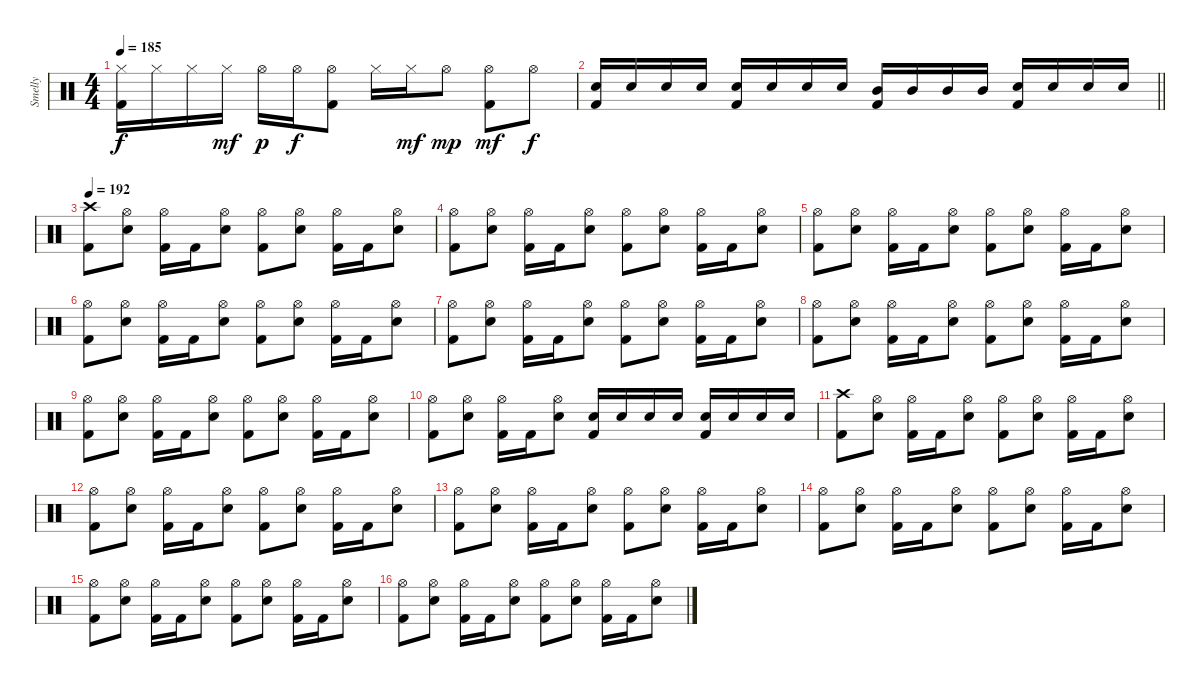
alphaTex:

\track ("Smelly" "Smelly") {instrument percussion}
\staff {score}
\articulation defaults
\ts (4 4)
\tempo 185
\clef neutral
\ks c
("Hi-Hat (closed)" "Kick (hit) 2").16{dy f} "Hi-Hat (closed)".16 "Hi-Hat (closed)".16 "Hi-Hat (closed)".16{dy mf} "Hi-Hat (open)".16{dy p} "Hi-Hat (open)".16{dy f} ("Hi-Hat (open)" "Kick (hit) 2").8 "Hi-Hat (closed)".16 "Hi-Hat (closed)".16{dy mf} "Hi-Hat (open)".8{dy mp} ("Hi-Hat (open)" "Kick (hit) 2").8{dy mf} "Hi-Hat (open)".8{dy f} |
\barLineRight lightlight
("Electric Snare (hit)" "Kick (hit) 2").16 "Electric Snare (hit)".16 "Electric Snare (hit)".16 "Electric Snare (hit)".16 ("Electric Snare (hit)" "Kick (hit) 2").16 "Electric Snare (hit)".16 "Electric Snare (hit)".16 "Electric Snare (hit)".16 ("Mid Tom (hit)" "Kick (hit) 2").16 "Mid Tom (hit)".16 "Mid Tom (hit)".16 "Mid Tom (hit)".16 ("Electric Snare (hit)" "Kick (hit) 2").16 "Electric Snare (hit)".16 "Electric Snare (hit)".16 "Electric Snare (hit)".16 |
\section ("" "")
\tempo 192
("Crash high (hit)" "Kick (hit) 2").8 ("Hi-Hat (open)" "Electric Snare (hit)").8 ("Hi-Hat (open)" "Kick (hit) 2").16 "Kick (hit) 2".16 ("Hi-Hat (open)" "Electric Snare (hit)").8 ("Hi-Hat (open)" "Kick (hit) 2").8 ("Hi-Hat (open)" "Electric Snare (hit)").8 ("Hi-Hat (open)" "Kick (hit) 2").16 "Kick (hit) 2".16 ("Hi-Hat (open)" "Electric Snare (hit)").8 |
("Hi-Hat (open)" "Kick (hit) 2").8 ("Hi-Hat (open)" "Electric Snare (hit)").8 ("Hi-Hat (open)" "Kick (hit) 2").16 "Kick (hit) 2".16 ("Hi-Hat (open)" "Electric Snare (hit)").8 ("Hi-Hat (open)" "Kick (hit) 2").8 ("Hi-Hat (open)" "Electric Snare (hit)").8 ("Hi-Hat (open)" "Kick (hit) 2").16 "Kick (hit) 2".16 ("Hi-Hat (open)" "Electric Snare (hit)").8 |
("Hi-Hat (open)" "Kick (hit) 2").8 ("Hi-Hat (open)" "Electric Snare (hit)").8 ("Hi-Hat (open)" "Kick (hit) 2").16 "Kick (hit) 2".16 ("Hi-Hat (open)" "Electric Snare (hit)").8 ("Hi-Hat (open)" "Kick (hit) 2").8 ("Hi-Hat (open)" "Electric Snare (hit)").8 ("Hi-Hat (open)" "Kick (hit) 2").16 "Kick (hit) 2".16 ("Hi-Hat (open)" "Electric Snare (hit)").8 |
("Hi-Hat (open)" "Kick (hit) 2").8 ("Hi-Hat (open)" "Electric Snare (hit)").8 ("Hi-Hat (open)" "Kick (hit) 2").16 "Kick (hit) 2".16 ("Hi-Hat (open)" "Electric Snare (hit)").8 ("Hi-Hat (open)" "Kick (hit) 2").8 ("Hi-Hat (open)" "Electric Snare (hit)").8 ("Hi-Hat (open)" "Kick (hit) 2").16 "Kick (hit) 2".16 ("Hi-Hat (open)" "Electric Snare (hit)").8 |
("Hi-Hat (open)" "Kick (hit) 2").8 ("Hi-Hat (open)" "Electric Snare (hit)").8 ("Hi-Hat (open)" "Kick (hit) 2").16 "Kick (hit) 2".16 ("Hi-Hat (open)" "Electric Snare (hit)").8 ("Hi-Hat (open)" "Kick (hit) 2").8 ("Hi-Hat (open)" "Electric Snare (hit)").8 ("Hi-Hat (open)" "Kick (hit) 2").16 "Kick (hit) 2".16 ("Hi-Hat (open)" "Electric Snare (hit)").8 |
("Hi-Hat (open)" "Kick (hit) 2").8 ("Hi-Hat (open)" "Electric Snare (hit)").8 ("Hi-Hat (open)" "Kick (hit) 2").16 "Kick (hit) 2".16 ("Hi-Hat (open)" "Electric Snare (hit)").8 ("Hi-Hat (open)" "Kick (hit) 2").8 ("Hi-Hat (open)" "Electric Snare (hit)").8 ("Hi-Hat (open)" "Kick (hit) 2").16 "Kick (hit) 2".16 ("Hi-Hat (open)" "Electric Snare (hit)").8 |
("Hi-Hat (open)" "Kick (hit) 2").8 ("Hi-Hat (open)" "Electric Snare (hit)").8 ("Hi-Hat (open)" "Kick (hit) 2").16 "Kick (hit) 2".16 ("Hi-Hat (open)" "Electric Snare (hit)").8 ("Hi-Hat (open)" "Kick (hit) 2").8 ("Hi-Hat (open)" "Electric Snare (hit)").8 ("Hi-Hat (open)" "Kick (hit) 2").16 "Kick (hit) 2".16 ("Hi-Hat (open)" "Electric Snare (hit)").8 |
("Hi-Hat (open)" "Kick (hit) 2").8 ("Hi-Hat (open)" "Electric Snare (hit)").8 ("Hi-Hat (open)" "Kick (hit) 2").16 "Kick (hit) 2".16 ("Hi-Hat (open)" "Electric Snare (hit)").8 ("Electric Snare (hit)" "Kick (hit) 2").16 "Electric Snare (hit)".16 "Electric Snare (hit)".16 "Electric Snare (hit)".16 ("Electric Snare (hit)" "Kick (hit) 2").16 "Electric Snare (hit)".16 "Electric Snare (hit)".16 "Electric Snare (hit)".16 |
("Crash high (hit)" "Kick (hit) 2").8 ("Hi-Hat (open)" "Electric Snare (hit)").8 ("Hi-Hat (open)" "Kick (hit) 2").16 "Kick (hit) 2".16 ("Hi-Hat (open)" "Electric Snare (hit)").8 ("Hi-Hat (open)" "Kick (hit) 2").8 ("Hi-Hat (open)" "Electric Snare (hit)").8 ("Hi-Hat (open)" "Kick (hit) 2").16 "Kick (hit) 2".16 ("Hi-Hat (open)" "Electric Snare (hit)").8 |
("Hi-Hat (open)" "Kick (hit) 2").8 ("Hi-Hat (open)" "Electric Snare (hit)").8 ("Hi-Hat (open)" "Kick (hit) 2").16 "Kick (hit) 2".16 ("Hi-Hat (open)" "Electric Snare (hit)").8 ("Hi-Hat (open)" "Kick (hit) 2").8 ("Hi-Hat (open)" "Electric Snare (hit)").8 ("Hi-Hat (open)" "Kick (hit) 2").16 "Kick (hit) 2".16 ("Hi-Hat (open)" "Electric Snare (hit)").8 |
("Hi-Hat (open)" "Kick (hit) 2").8 ("Hi-Hat (open)" "Electric Snare (hit)").8 ("Hi-Hat (open)" "Kick (hit) 2").16 "Kick (hit) 2".16 ("Hi-Hat (open)" "Electric Snare (hit)").8 ("Hi-Hat (open)" "Kick (hit) 2").8 ("Hi-Hat (open)" "Electric Snare (hit)").8 ("Hi-Hat (open)" "Kick (hit) 2").16 "Kick (hit) 2".16 ("Hi-Hat (open)" "Electric Snare (hit)").8 |
("Hi-Hat (open)" "Kick (hit) 2").8 ("Hi-Hat (open)" "Electric Snare (hit)").8 ("Hi-Hat (open)" "Kick (hit) 2").16 "Kick (hit) 2".16 ("Hi-Hat (open)" "Electric Snare (hit)").8 ("Hi-Hat (open)" "Kick (hit) 2").8 ("Hi-Hat (open)" "Electric Snare (hit)").8 ("Hi-Hat (open)" "Kick (hit) 2").16 "Kick (hit) 2".16 ("Hi-Hat (open)" "Electric Snare (hit)").8 |
("Hi-Hat (open)" "Kick (hit) 2").8 ("Hi-Hat (open)" "Electric Snare (hit)").8 ("Hi-Hat (open)" "Kick (hit) 2").16 "Kick (hit) 2".16 ("Hi-Hat (open)" "Electric Snare (hit)").8 ("Hi-Hat (open)" "Kick (hit) 2").8 ("Hi-Hat (open)" "Electric Snare (hit)").8 ("Hi-Hat (open)" "Kick (hit) 2").16 "Kick (hit) 2".16 ("Hi-Hat (open)" "Electric Snare (hit)").8 |
("Hi-Hat (open)" "Kick (hit) 2").8 ("Hi-Hat (open)" "Electric Snare (hit)").8 ("Hi-Hat (open)" "Kick (hit) 2").16 "Kick (hit) 2".16 ("Hi-Hat (open)" "Electric Snare (hit)").8 ("Hi-Hat (open)" "Kick (hit) 2").8 ("Hi-Hat (open)" "Electric Snare (hit)").8 ("Hi-Hat (open)" "Kick (hit) 2").16 "Kick (hit) 2".16 ("Hi-Hat (open)" "Electric Snare (hit)").8
